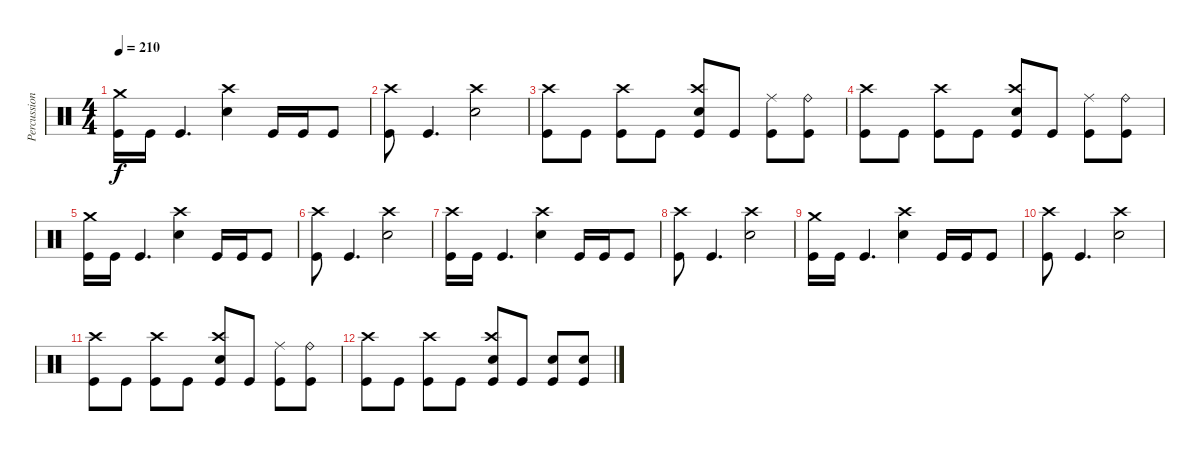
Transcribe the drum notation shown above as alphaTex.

\track ("Percussion" "Percussion") {instrument percussion}
\staff {score}
\articulation defaults
\ts (4 4)
\tempo 210
\clef neutral
\ks c
("Crash medium (hit)" "Kick (hit)").16{dy f} "Kick (hit)".16 "Kick (hit)".4{d} ("Crash high (hit)" "Electric Snare (hit)").4 "Kick (hit)".16 "Kick (hit)".16 "Kick (hit)".8 |
("Crash high (hit)" "Kick (hit)").8 "Kick (hit)".4{d} ("Crash high (hit)" "Electric Snare (hit)").2 |
("Crash high (hit)" "Kick (hit)").8 "Kick (hit)".8 ("Crash high (hit)" "Kick (hit)").8 "Kick (hit)".8 ("Crash high (hit)" "Electric Snare (hit)" "Kick (hit)").8 "Kick (hit)".8 ("Ride (middle)" "Kick (hit)").8 ("Ride (bell)" "Kick (hit)").8 |
("Crash high (hit)" "Kick (hit)").8 "Kick (hit)".8 ("Crash high (hit)" "Kick (hit)").8 "Kick (hit)".8 ("Crash high (hit)" "Electric Snare (hit)" "Kick (hit)").8 "Kick (hit)".8 ("Ride (middle)" "Kick (hit)").8 ("Ride (bell)" "Kick (hit)").8 |
("Crash medium (hit)" "Kick (hit)").16 "Kick (hit)".16 "Kick (hit)".4{d} ("Crash high (hit)" "Electric Snare (hit)").4 "Kick (hit)".16 "Kick (hit)".16 "Kick (hit)".8 |
("Crash high (hit)" "Kick (hit)").8 "Kick (hit)".4{d} ("Crash high (hit)" "Electric Snare (hit)").2 |
("Crash high (hit)" "Kick (hit)").16 "Kick (hit)".16 "Kick (hit)".4{d} ("Crash high (hit)" "Electric Snare (hit)").4 "Kick (hit)".16 "Kick (hit)".16 "Kick (hit)".8 |
("Crash high (hit)" "Kick (hit)").8 "Kick (hit)".4{d} ("Crash high (hit)" "Electric Snare (hit)").2 |
("Crash medium (hit)" "Kick (hit)").16 "Kick (hit)".16 "Kick (hit)".4{d} ("Crash high (hit)" "Electric Snare (hit)").4 "Kick (hit)".16 "Kick (hit)".16 "Kick (hit)".8 |
("Crash high (hit)" "Kick (hit)").8 "Kick (hit)".4{d} ("Crash high (hit)" "Electric Snare (hit)").2 |
("Crash high (hit)" "Kick (hit)").8 "Kick (hit)".8 ("Crash high (hit)" "Kick (hit)").8 "Kick (hit)".8 ("Crash high (hit)" "Electric Snare (hit)" "Kick (hit)").8 "Kick (hit)".8 ("Ride (middle)" "Kick (hit)").8 ("Ride (bell)" "Kick (hit)").8 |
("Crash high (hit)" "Kick (hit)").8 "Kick (hit)".8 ("Crash high (hit)" "Kick (hit)").8 "Kick (hit)".8 ("Crash high (hit)" "Electric Snare (hit)" "Kick (hit)").8 "Kick (hit)".8 ("Electric Snare (hit)" "Kick (hit)").8 ("Electric Snare (hit)" "Kick (hit)").8
